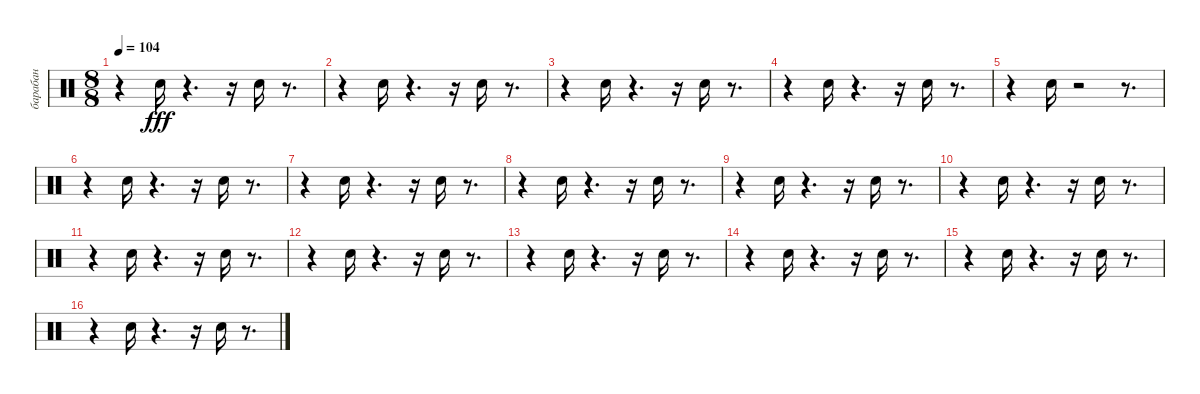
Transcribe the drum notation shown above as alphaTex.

\track ("барабан" "барабан") {instrument percussion}
\staff {score}
\articulation defaults
\ts (8 8)
\tempo 104
\clef neutral
\ks c
r.4{dy fff} "Snare (hit) 2".16 r.4{d} r.16 "Snare (hit) 2".16 r.8{d} |
r.4 "Snare (hit) 2".16 r.4{d} r.16 "Snare (hit) 2".16 r.8{d} |
r.4 "Snare (hit) 2".16 r.4{d} r.16 "Snare (hit) 2".16 r.8{d} |
r.4 "Snare (hit) 2".16 r.4{d} r.16 "Snare (hit) 2".16 r.8{d} |
r.4 "Snare (hit) 2".16 r.2 r.8{d} |
r.4 "Snare (hit) 2".16 r.4{d} r.16 "Snare (hit) 2".16 r.8{d} |
r.4 "Snare (hit) 2".16 r.4{d} r.16 "Snare (hit) 2".16 r.8{d} |
r.4 "Snare (hit) 2".16 r.4{d} r.16 "Snare (hit) 2".16 r.8{d} |
r.4 "Snare (hit) 2".16 r.4{d} r.16 "Snare (hit) 2".16 r.8{d} |
r.4 "Snare (hit) 2".16 r.4{d} r.16 "Snare (hit) 2".16 r.8{d} |
r.4 "Snare (hit) 2".16 r.4{d} r.16 "Snare (hit) 2".16 r.8{d} |
r.4 "Snare (hit) 2".16 r.4{d} r.16 "Snare (hit) 2".16 r.8{d} |
r.4 "Snare (hit) 2".16 r.4{d} r.16 "Snare (hit) 2".16 r.8{d} |
r.4 "Snare (hit) 2".16 r.4{d} r.16 "Snare (hit) 2".16 r.8{d} |
r.4 "Snare (hit) 2".16 r.4{d} r.16 "Snare (hit) 2".16 r.8{d} |
r.4 "Snare (hit) 2".16 r.4{d} r.16 "Snare (hit) 2".16 r.8{d}
